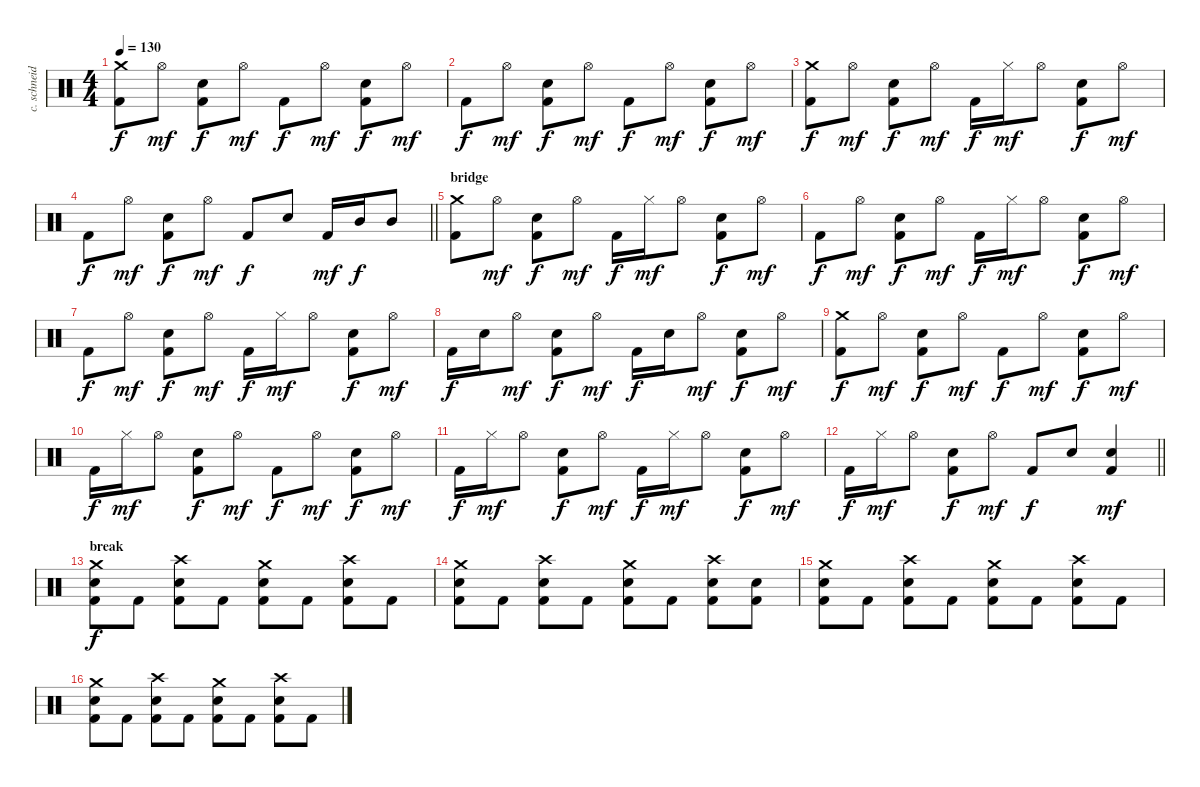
\track ("c. schneider - drums" "c. schneid") {instrument percussion}
\staff {score}
\articulation defaults
\ts (4 4)
\tempo 130
\clef neutral
\ks c
("Crash medium (hit)" "Kick (hit) 2").8{dy f} "Hi-Hat (open)".8{dy mf} ("Electric Snare (hit)" "Kick (hit) 2").8{dy f} "Hi-Hat (open)".8{dy mf} "Kick (hit) 2".8{dy f} "Hi-Hat (open)".8{dy mf} ("Electric Snare (hit)" "Kick (hit) 2").8{dy f} "Hi-Hat (open)".8{dy mf} |
"Kick (hit) 2".8{dy f} "Hi-Hat (open)".8{dy mf} ("Electric Snare (hit)" "Kick (hit) 2").8{dy f} "Hi-Hat (open)".8{dy mf} "Kick (hit) 2".8{dy f} "Hi-Hat (open)".8{dy mf} ("Electric Snare (hit)" "Kick (hit) 2").8{dy f} "Hi-Hat (open)".8{dy mf} |
("Crash medium (hit)" "Kick (hit) 2").8{dy f} "Hi-Hat (open)".8{dy mf} ("Electric Snare (hit)" "Kick (hit) 2").8{dy f} "Hi-Hat (open)".8{dy mf} "Kick (hit) 2".16{dy f} "Hi-Hat (closed)".16{dy mf} "Hi-Hat (open)".8 ("Electric Snare (hit)" "Kick (hit) 2").8{dy f} "Hi-Hat (open)".8{dy mf} |
\barLineRight lightlight "Kick (hit) 2".8{dy f} "Hi-Hat (open)".8{dy mf}
("Electric Snare (hit)" "Kick (hit) 2").8{dy f} "Hi-Hat (open)".8{dy mf} "Kick (hit) 2".8{dy f} "Electric Snare (hit)".8 "Kick (hit) 2".16{dy mf} "Mid Tom (hit)".16{dy f} "Mid Tom (hit)".8 |
\section ("" "bridge")
("Crash medium (hit)" "Kick (hit) 2").8 "Hi-Hat (open)".8{dy mf} ("Electric Snare (hit)" "Kick (hit) 2").8{dy f} "Hi-Hat (open)".8{dy mf} "Kick (hit) 2".16{dy f} "Hi-Hat (closed)".16{dy mf} "Hi-Hat (open)".8 ("Electric Snare (hit)" "Kick (hit) 2").8{dy f} "Hi-Hat (open)".8{dy mf} |
"Kick (hit) 2".8{dy f} "Hi-Hat (open)".8{dy mf} ("Electric Snare (hit)" "Kick (hit) 2").8{dy f} "Hi-Hat (open)".8{dy mf} "Kick (hit) 2".16{dy f} "Hi-Hat (closed)".16{dy mf} "Hi-Hat (open)".8 ("Electric Snare (hit)" "Kick (hit) 2").8{dy f} "Hi-Hat (open)".8{dy mf} |
"Kick (hit) 2".8{dy f} "Hi-Hat (open)".8{dy mf} ("Electric Snare (hit)" "Kick (hit) 2").8{dy f} "Hi-Hat (open)".8{dy mf} "Kick (hit) 2".16{dy f} "Hi-Hat (closed)".16{dy mf} "Hi-Hat (open)".8 ("Electric Snare (hit)" "Kick (hit) 2").8{dy f} "Hi-Hat (open)".8{dy mf} |
"Kick (hit) 2".16{dy f} "Electric Snare (hit)".16 "Hi-Hat (open)".8{dy mf} ("Electric Snare (hit)" "Kick (hit) 2").8{dy f} "Hi-Hat (open)".8{dy mf} "Kick (hit) 2".16{dy f} "Electric Snare (hit)".16 "Hi-Hat (open)".8{dy mf} ("Electric Snare (hit)" "Kick (hit) 2").8{dy f} "Hi-Hat (open)".8{dy mf} |
("Crash medium (hit)" "Kick (hit) 2").8{dy f} "Hi-Hat (open)".8{dy mf} ("Electric Snare (hit)" "Kick (hit) 2").8{dy f} "Hi-Hat (open)".8{dy mf} "Kick (hit) 2".8{dy f} "Hi-Hat (open)".8{dy mf} ("Electric Snare (hit)" "Kick (hit) 2").8{dy f} "Hi-Hat (open)".8{dy mf} |
"Kick (hit) 2".16{dy f} "Hi-Hat (closed)".16{dy mf} "Hi-Hat (open)".8 ("Electric Snare (hit)" "Kick (hit) 2").8{dy f} "Hi-Hat (open)".8{dy mf} "Kick (hit) 2".8{dy f} "Hi-Hat (open)".8{dy mf} ("Electric Snare (hit)" "Kick (hit) 2").8{dy f} "Hi-Hat (open)".8{dy mf} |
"Kick (hit) 2".16{dy f} "Hi-Hat (closed)".16{dy mf} "Hi-Hat (open)".8 ("Electric Snare (hit)" "Kick (hit) 2").8{dy f} "Hi-Hat (open)".8{dy mf} "Kick (hit) 2".16{dy f} "Hi-Hat (closed)".16{dy mf} "Hi-Hat (open)".8 ("Electric Snare (hit)" "Kick (hit) 2").8{dy f} "Hi-Hat (open)".8{dy mf} |
\barLineRight lightlight "Kick (hit) 2".16{dy f} "Hi-Hat (closed)".16{dy mf} "Hi-Hat (open)".8
("Electric Snare (hit)" "Kick (hit) 2").8{dy f} "Hi-Hat (open)".8{dy mf} "Kick (hit) 2".8{dy f} "Electric Snare (hit)".8 ("Electric Snare (hit)" "Kick (hit) 2").4{dy mf} |
\section ("" "break")
("Crash medium (hit)" "Electric Snare (hit)" "Kick (hit) 2").8{dy f} "Kick (hit) 2".8 ("Crash high (hit)" "Electric Snare (hit)" "Kick (hit) 2").8 "Kick (hit) 2".8 ("Crash medium (hit)" "Electric Snare (hit)" "Kick (hit) 2").8 "Kick (hit) 2".8 ("Crash high (hit)" "Electric Snare (hit)" "Kick (hit) 2").8 "Kick (hit) 2".8 |
("Crash medium (hit)" "Electric Snare (hit)" "Kick (hit) 2").8 "Kick (hit) 2".8 ("Crash high (hit)" "Electric Snare (hit)" "Kick (hit) 2").8 "Kick (hit) 2".8 ("Crash medium (hit)" "Electric Snare (hit)" "Kick (hit) 2").8 "Kick (hit) 2".8 ("Crash high (hit)" "Electric Snare (hit)" "Kick (hit) 2").8 ("Electric Snare (hit)" "Kick (hit) 2").8 |
("Crash medium (hit)" "Electric Snare (hit)" "Kick (hit) 2").8 "Kick (hit) 2".8 ("Crash high (hit)" "Electric Snare (hit)" "Kick (hit) 2").8 "Kick (hit) 2".8 ("Crash medium (hit)" "Electric Snare (hit)" "Kick (hit) 2").8 "Kick (hit) 2".8 ("Crash high (hit)" "Electric Snare (hit)" "Kick (hit) 2").8 "Kick (hit) 2".8 |
("Crash medium (hit)" "Electric Snare (hit)" "Kick (hit) 2").8 "Kick (hit) 2".8 ("Crash high (hit)" "Electric Snare (hit)" "Kick (hit) 2").8 "Kick (hit) 2".8 ("Crash medium (hit)" "Electric Snare (hit)" "Kick (hit) 2").8 "Kick (hit) 2".8 ("Crash high (hit)" "Electric Snare (hit)" "Kick (hit) 2").8 "Kick (hit) 2".8
